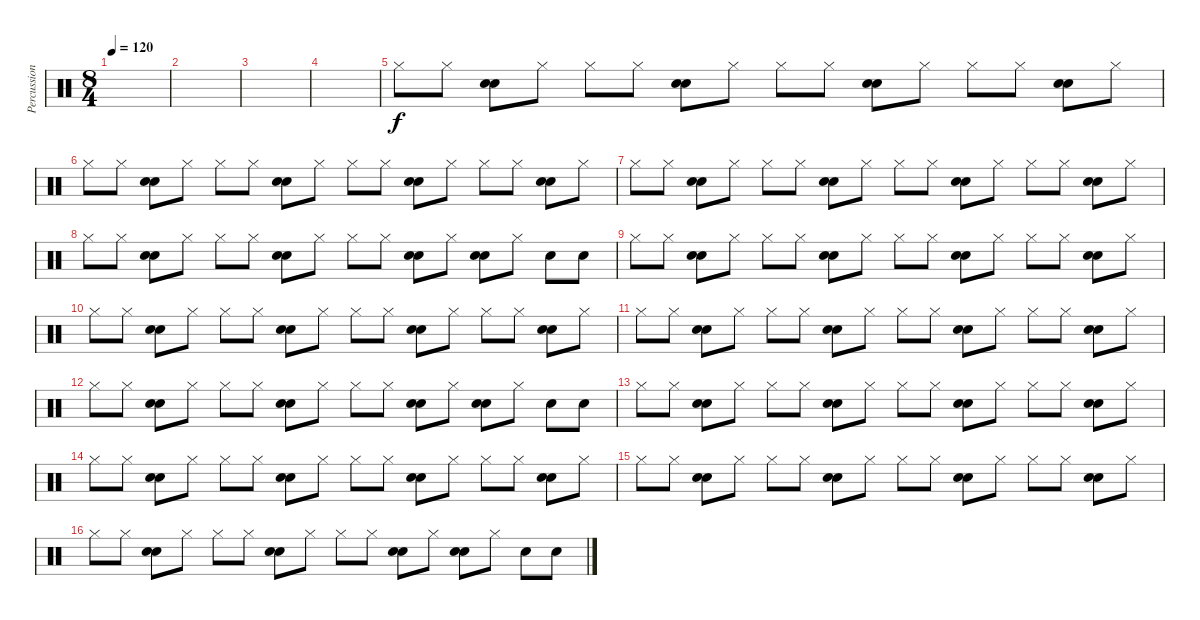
\track ("Percussions" "Percussion") {instrument percussion}
\staff {score}
\articulation defaults
\ts (8 4)
\tempo 120
\clef neutral
\ks c
|
|
|
|
"Hi-Hat (closed)".8 "Hi-Hat (closed)".8 ("Snare (hit) 2" "Electric Snare (hit)").8 "Hi-Hat (closed)".8 "Hi-Hat (closed)".8 "Hi-Hat (closed)".8 ("Snare (hit) 2" "Electric Snare (hit)").8 "Hi-Hat (closed)".8 "Hi-Hat (closed)".8 "Hi-Hat (closed)".8 ("Snare (hit) 2" "Electric Snare (hit)").8 "Hi-Hat (closed)".8 "Hi-Hat (closed)".8 "Hi-Hat (closed)".8 ("Snare (hit) 2" "Electric Snare (hit)").8 "Hi-Hat (closed)".8 |
"Hi-Hat (closed)".8 "Hi-Hat (closed)".8 ("Snare (hit) 2" "Electric Snare (hit)").8 "Hi-Hat (closed)".8 "Hi-Hat (closed)".8 "Hi-Hat (closed)".8 ("Snare (hit) 2" "Electric Snare (hit)").8 "Hi-Hat (closed)".8 "Hi-Hat (closed)".8 "Hi-Hat (closed)".8 ("Snare (hit) 2" "Electric Snare (hit)").8 "Hi-Hat (closed)".8 "Hi-Hat (closed)".8 "Hi-Hat (closed)".8 ("Snare (hit) 2" "Electric Snare (hit)").8 "Hi-Hat (closed)".8 |
"Hi-Hat (closed)".8 "Hi-Hat (closed)".8 ("Snare (hit) 2" "Electric Snare (hit)").8 "Hi-Hat (closed)".8 "Hi-Hat (closed)".8 "Hi-Hat (closed)".8 ("Snare (hit) 2" "Electric Snare (hit)").8 "Hi-Hat (closed)".8 "Hi-Hat (closed)".8 "Hi-Hat (closed)".8 ("Snare (hit) 2" "Electric Snare (hit)").8 "Hi-Hat (closed)".8 "Hi-Hat (closed)".8 "Hi-Hat (closed)".8 ("Snare (hit) 2" "Electric Snare (hit)").8 "Hi-Hat (closed)".8 |
"Hi-Hat (closed)".8 "Hi-Hat (closed)".8 ("Snare (hit) 2" "Electric Snare (hit)").8 "Hi-Hat (closed)".8 "Hi-Hat (closed)".8 "Hi-Hat (closed)".8 ("Snare (hit) 2" "Electric Snare (hit)").8 "Hi-Hat (closed)".8 "Hi-Hat (closed)".8 "Hi-Hat (closed)".8 ("Snare (hit) 2" "Electric Snare (hit)").8 "Hi-Hat (closed)".8 ("Snare (hit) 2" "Electric Snare (hit)").8 "Hi-Hat (closed)".8 "Snare (hit) 2".8 "Snare (hit) 2".8 |
"Hi-Hat (closed)".8 "Hi-Hat (closed)".8 ("Snare (hit) 2" "Electric Snare (hit)").8 "Hi-Hat (closed)".8 "Hi-Hat (closed)".8 "Hi-Hat (closed)".8 ("Snare (hit) 2" "Electric Snare (hit)").8 "Hi-Hat (closed)".8 "Hi-Hat (closed)".8 "Hi-Hat (closed)".8 ("Snare (hit) 2" "Electric Snare (hit)").8 "Hi-Hat (closed)".8 "Hi-Hat (closed)".8 "Hi-Hat (closed)".8 ("Snare (hit) 2" "Electric Snare (hit)").8 "Hi-Hat (closed)".8 |
"Hi-Hat (closed)".8 "Hi-Hat (closed)".8 ("Snare (hit) 2" "Electric Snare (hit)").8 "Hi-Hat (closed)".8 "Hi-Hat (closed)".8 "Hi-Hat (closed)".8 ("Snare (hit) 2" "Electric Snare (hit)").8 "Hi-Hat (closed)".8 "Hi-Hat (closed)".8 "Hi-Hat (closed)".8 ("Snare (hit) 2" "Electric Snare (hit)").8 "Hi-Hat (closed)".8 "Hi-Hat (closed)".8 "Hi-Hat (closed)".8 ("Snare (hit) 2" "Electric Snare (hit)").8 "Hi-Hat (closed)".8 |
"Hi-Hat (closed)".8 "Hi-Hat (closed)".8 ("Snare (hit) 2" "Electric Snare (hit)").8 "Hi-Hat (closed)".8 "Hi-Hat (closed)".8 "Hi-Hat (closed)".8 ("Snare (hit) 2" "Electric Snare (hit)").8 "Hi-Hat (closed)".8 "Hi-Hat (closed)".8 "Hi-Hat (closed)".8 ("Snare (hit) 2" "Electric Snare (hit)").8 "Hi-Hat (closed)".8 "Hi-Hat (closed)".8 "Hi-Hat (closed)".8 ("Snare (hit) 2" "Electric Snare (hit)").8 "Hi-Hat (closed)".8 |
"Hi-Hat (closed)".8 "Hi-Hat (closed)".8 ("Snare (hit) 2" "Electric Snare (hit)").8 "Hi-Hat (closed)".8 "Hi-Hat (closed)".8 "Hi-Hat (closed)".8 ("Snare (hit) 2" "Electric Snare (hit)").8 "Hi-Hat (closed)".8 "Hi-Hat (closed)".8 "Hi-Hat (closed)".8 ("Snare (hit) 2" "Electric Snare (hit)").8 "Hi-Hat (closed)".8 ("Snare (hit) 2" "Electric Snare (hit)").8 "Hi-Hat (closed)".8 "Snare (hit) 2".8 "Snare (hit) 2".8 |
"Hi-Hat (closed)".8 "Hi-Hat (closed)".8 ("Snare (hit) 2" "Electric Snare (hit)").8 "Hi-Hat (closed)".8 "Hi-Hat (closed)".8 "Hi-Hat (closed)".8 ("Snare (hit) 2" "Electric Snare (hit)").8 "Hi-Hat (closed)".8 "Hi-Hat (closed)".8 "Hi-Hat (closed)".8 ("Snare (hit) 2" "Electric Snare (hit)").8 "Hi-Hat (closed)".8 "Hi-Hat (closed)".8 "Hi-Hat (closed)".8 ("Snare (hit) 2" "Electric Snare (hit)").8 "Hi-Hat (closed)".8 |
"Hi-Hat (closed)".8 "Hi-Hat (closed)".8 ("Snare (hit) 2" "Electric Snare (hit)").8 "Hi-Hat (closed)".8 "Hi-Hat (closed)".8 "Hi-Hat (closed)".8 ("Snare (hit) 2" "Electric Snare (hit)").8 "Hi-Hat (closed)".8 "Hi-Hat (closed)".8 "Hi-Hat (closed)".8 ("Snare (hit) 2" "Electric Snare (hit)").8 "Hi-Hat (closed)".8 "Hi-Hat (closed)".8 "Hi-Hat (closed)".8 ("Snare (hit) 2" "Electric Snare (hit)").8 "Hi-Hat (closed)".8 |
"Hi-Hat (closed)".8 "Hi-Hat (closed)".8 ("Snare (hit) 2" "Electric Snare (hit)").8 "Hi-Hat (closed)".8 "Hi-Hat (closed)".8 "Hi-Hat (closed)".8 ("Snare (hit) 2" "Electric Snare (hit)").8 "Hi-Hat (closed)".8 "Hi-Hat (closed)".8 "Hi-Hat (closed)".8 ("Snare (hit) 2" "Electric Snare (hit)").8 "Hi-Hat (closed)".8 "Hi-Hat (closed)".8 "Hi-Hat (closed)".8 ("Snare (hit) 2" "Electric Snare (hit)").8 "Hi-Hat (closed)".8 |
"Hi-Hat (closed)".8 "Hi-Hat (closed)".8 ("Snare (hit) 2" "Electric Snare (hit)").8 "Hi-Hat (closed)".8 "Hi-Hat (closed)".8 "Hi-Hat (closed)".8 ("Snare (hit) 2" "Electric Snare (hit)").8 "Hi-Hat (closed)".8 "Hi-Hat (closed)".8 "Hi-Hat (closed)".8 ("Snare (hit) 2" "Electric Snare (hit)").8 "Hi-Hat (closed)".8 ("Snare (hit) 2" "Electric Snare (hit)").8 "Hi-Hat (closed)".8 "Snare (hit) 2".8 "Snare (hit) 2".8
